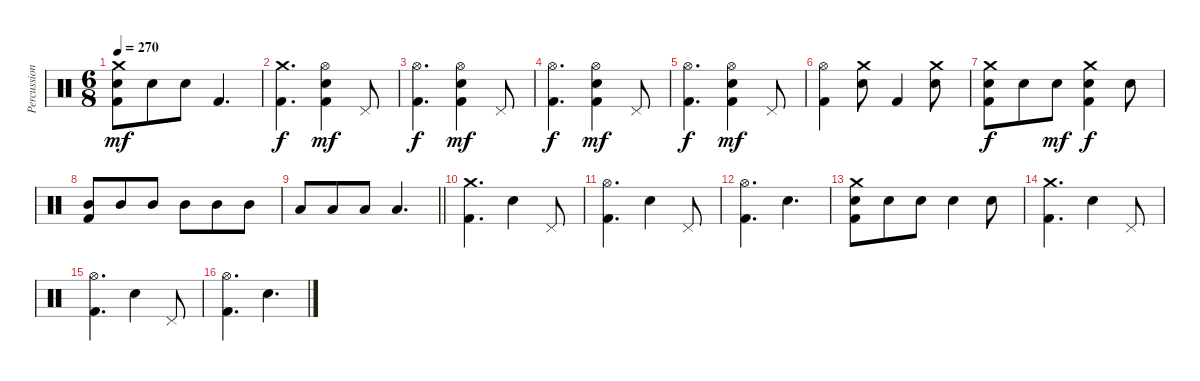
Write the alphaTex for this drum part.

\track ("Percussion" "Percussion") {instrument percussion}
\staff {score}
\articulation defaults
\ts (6 8)
\tempo 270
\clef neutral
\ks c
("Crash medium (hit)" "Electric Snare (hit)" "Kick (hit) 2").8{dy mf} "Electric Snare (hit)".8 "Electric Snare (hit)".8 "Kick (hit) 2".4{d} |
("Crash medium (hit)" "Kick (hit) 2").4{d dy f} ("Hi-Hat (open)" "Electric Snare (hit)" "Kick (hit) 2").4{dy mf} "Pedal Hi-Hat (hit)".8 |
("Hi-Hat (open)" "Kick (hit) 2").4{d dy f} ("Hi-Hat (open)" "Electric Snare (hit)" "Kick (hit) 2").4{dy mf} "Pedal Hi-Hat (hit)".8 |
("Hi-Hat (open)" "Kick (hit) 2").4{d dy f} ("Hi-Hat (open)" "Electric Snare (hit)" "Kick (hit) 2").4{dy mf} "Pedal Hi-Hat (hit)".8 |
("Hi-Hat (open)" "Kick (hit) 2").4{d dy f} ("Hi-Hat (open)" "Electric Snare (hit)" "Kick (hit) 2").4{dy mf} "Pedal Hi-Hat (hit)".8 |
("Hi-Hat (open)" "Kick (hit) 2").4 ("Crash medium (hit)" "Electric Snare (hit)").8 "Kick (hit) 2".4 ("Crash medium (hit)" "Electric Snare (hit)").8 |
("Crash medium (hit)" "Snare (hit) 2" "Kick (hit) 2").8{dy f} "Electric Snare (hit)".8 "Electric Snare (hit)".8{dy mf} ("Crash medium (hit)" "Electric Snare (hit)" "Kick (hit) 2").4{dy f} "Electric Snare (hit)".8 |
("Mid Tom (hit)" "Kick (hit) 2").8 "Mid Tom (hit)".8 "Mid Tom (hit)".8 "Mid Tom (hit)".8 "Mid Tom (hit)".8 "Mid Tom (hit)".8 |
\barLineRight lightlight "Low Tom (hit)".8 "Low Tom (hit)".8 "Low Tom (hit)".8 "Low Tom (hit)".4{d}
|
("Crash medium (hit)" "Kick (hit) 2").4{d} "Electric Snare (hit)".4 "Pedal Hi-Hat (hit)".8 |
("Hi-Hat (open)" "Kick (hit) 2").4{d} "Electric Snare (hit)".4 "Pedal Hi-Hat (hit)".8 |
("Hi-Hat (open)" "Kick (hit) 2").4{d} "Electric Snare (hit)".4{d} |
("Crash medium (hit)" "Snare (hit) 2" "Kick (hit) 2").8 "Electric Snare (hit)".8 "Electric Snare (hit)".8 "Electric Snare (hit)".4 "Electric Snare (hit)".8 |
("Crash medium (hit)" "Kick (hit) 2").4{d} "Electric Snare (hit)".4 "Pedal Hi-Hat (hit)".8 |
("Hi-Hat (open)" "Kick (hit) 2").4{d} "Electric Snare (hit)".4 "Pedal Hi-Hat (hit)".8 |
("Hi-Hat (open)" "Kick (hit) 2").4{d} "Electric Snare (hit)".4{d}
